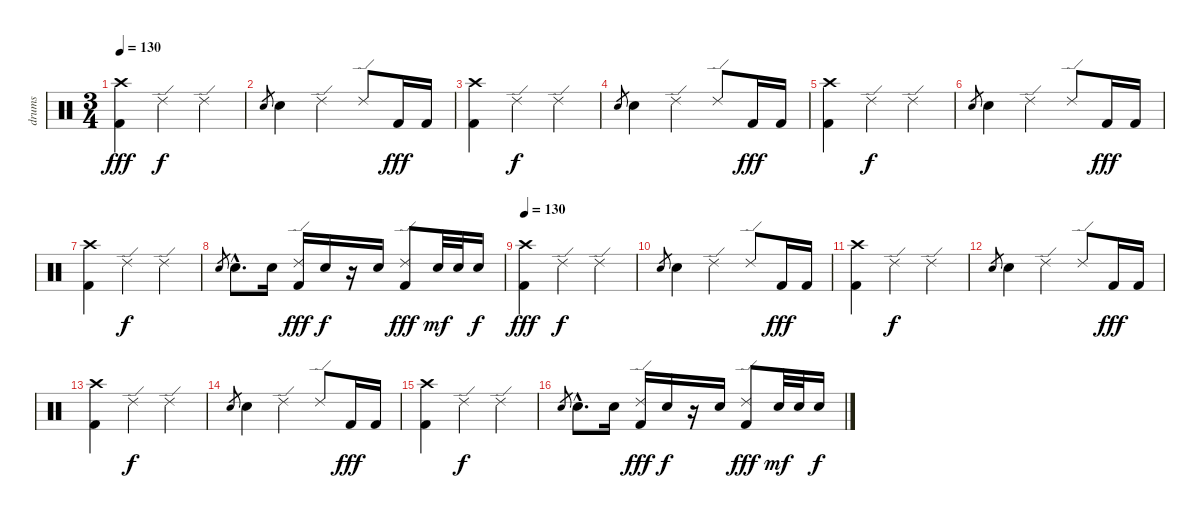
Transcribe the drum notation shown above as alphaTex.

\track ("drums" "drums") {instrument percussion}
\staff {score}
\articulation defaults
\ts (3 4)
\tempo 130
\clef neutral
\ks c
("Crash high (hit)" "Kick (hit) 2").4{dy fff} "Ride (edge) 2".4{dy f} "Ride (edge) 2".4 |
"Snare (hit) 2".8{gr} "Snare (hit) 2".4 "Ride (edge) 2".4 "Ride (edge) 2".8 "Kick (hit) 2".16{dy fff} "Kick (hit) 2".16 |
("Crash high (hit)" "Kick (hit) 2").4 "Ride (edge) 2".4{dy f} "Ride (edge) 2".4 |
"Snare (hit) 2".8{gr} "Snare (hit) 2".4 "Ride (edge) 2".4 "Ride (edge) 2".8 "Kick (hit) 2".16{dy fff} "Kick (hit) 2".16 |
("Crash high (hit)" "Kick (hit) 2").4 "Ride (edge) 2".4{dy f} "Ride (edge) 2".4 |
"Snare (hit) 2".8{gr} "Snare (hit) 2".4 "Ride (edge) 2".4 "Ride (edge) 2".8 "Kick (hit) 2".16{dy fff} "Kick (hit) 2".16 |
("Crash high (hit)" "Kick (hit) 2").4 "Ride (edge) 2".4{dy f} "Ride (edge) 2".4 |
"Snare (hit) 2".8{gr} "Snare (hit) 2"{hac}.8{d} "Snare (hit) 2".16 ("Ride (edge) 2" "Kick (hit) 2").16{dy fff} "Snare (hit) 2".16{dy f} r.16 "Snare (hit) 2".16 ("Ride (edge) 2" "Kick (hit) 2").8{dy fff} "Snare (hit) 2".32{dy mf} "Snare (hit) 2".32 "Snare (hit) 2".16{dy f} |
\tempo 130
("Crash high (hit)" "Kick (hit) 2").4{dy fff} "Ride (edge) 2".4{dy f} "Ride (edge) 2".4 |
"Snare (hit) 2".8{gr} "Snare (hit) 2".4 "Ride (edge) 2".4 "Ride (edge) 2".8 "Kick (hit) 2".16{dy fff} "Kick (hit) 2".16 |
("Crash high (hit)" "Kick (hit) 2").4 "Ride (edge) 2".4{dy f} "Ride (edge) 2".4 |
"Snare (hit) 2".8{gr} "Snare (hit) 2".4 "Ride (edge) 2".4 "Ride (edge) 2".8 "Kick (hit) 2".16{dy fff} "Kick (hit) 2".16 |
("Crash high (hit)" "Kick (hit) 2").4 "Ride (edge) 2".4{dy f} "Ride (edge) 2".4 |
"Snare (hit) 2".8{gr} "Snare (hit) 2".4 "Ride (edge) 2".4 "Ride (edge) 2".8 "Kick (hit) 2".16{dy fff} "Kick (hit) 2".16 |
("Crash high (hit)" "Kick (hit) 2").4 "Ride (edge) 2".4{dy f} "Ride (edge) 2".4 |
"Snare (hit) 2".8{gr} "Snare (hit) 2"{hac}.8{d} "Snare (hit) 2".16 ("Ride (edge) 2" "Kick (hit) 2").16{dy fff} "Snare (hit) 2".16{dy f} r.16 "Snare (hit) 2".16 ("Ride (edge) 2" "Kick (hit) 2").8{dy fff} "Snare (hit) 2".32{dy mf} "Snare (hit) 2".32 "Snare (hit) 2".16{dy f}
